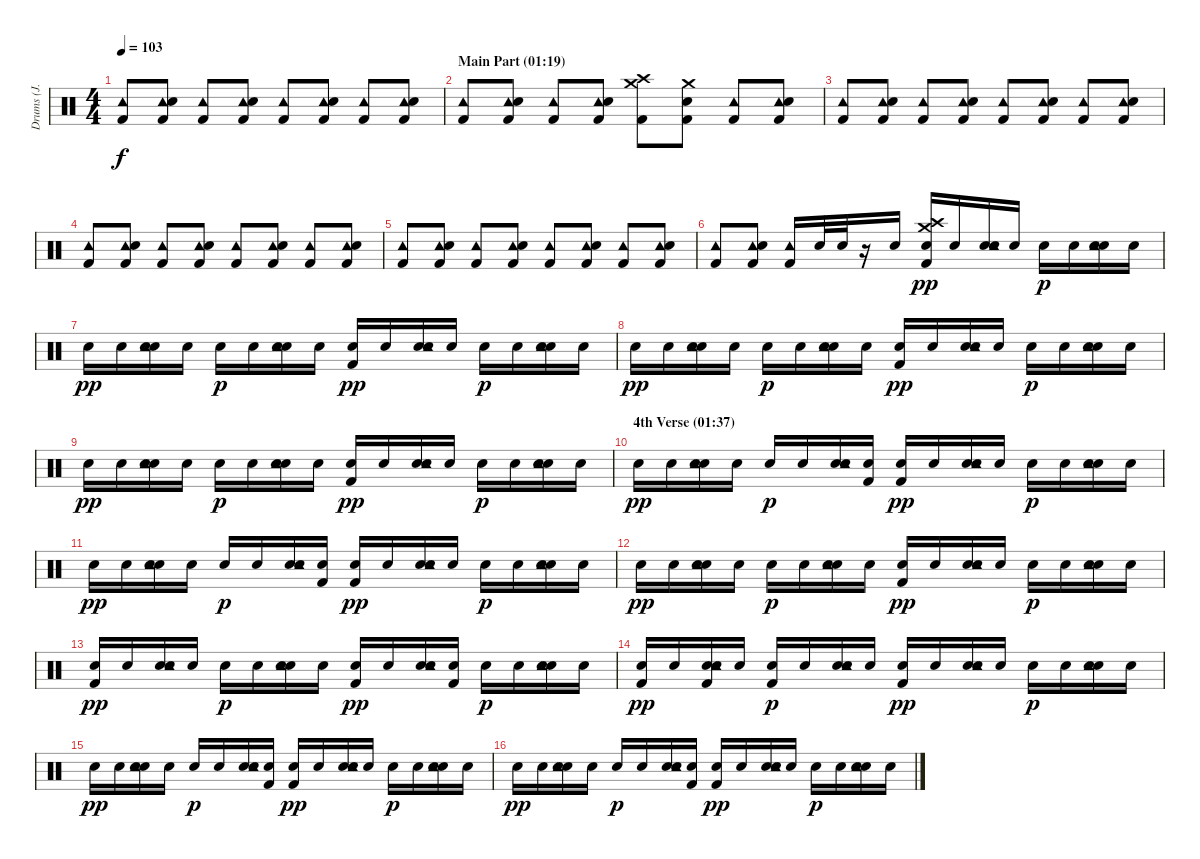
\track ("Drums (J. Cramer)" "Drums (J. ") {instrument percussion}
\staff {score}
\articulation defaults
\ts (4 4)
\tempo 103
\clef neutral
\ks c
("Tambourine (hit)" "Kick (hit) 2").8{dy f} ("Tambourine (hit)" "Electric Snare (hit)" "Kick (hit) 2").8 ("Tambourine (hit)" "Kick (hit) 2").8 ("Tambourine (hit)" "Electric Snare (hit)" "Kick (hit) 2").8 ("Tambourine (hit)" "Kick (hit) 2").8 ("Tambourine (hit)" "Electric Snare (hit)" "Kick (hit) 2").8 ("Tambourine (hit)" "Kick (hit) 2").8 ("Tambourine (hit)" "Electric Snare (hit)" "Kick (hit) 2").8 |
\section ("" "Main Part (01:19)")
("Tambourine (hit)" "Kick (hit) 2").8 ("Tambourine (hit)" "Electric Snare (hit)" "Kick (hit) 2").8 ("Tambourine (hit)" "Kick (hit) 2").8 ("Tambourine (hit)" "Electric Snare (hit)" "Kick (hit) 2").8 ("Kick (hit) 2" "Crash high (hit)" "Crash medium (hit)").8 ("Electric Snare (hit)" "Kick (hit) 2" "Crash medium (hit)").8 ("Tambourine (hit)" "Kick (hit) 2").8 ("Tambourine (hit)" "Electric Snare (hit)" "Kick (hit) 2").8 |
("Tambourine (hit)" "Kick (hit) 2").8 ("Tambourine (hit)" "Electric Snare (hit)" "Kick (hit) 2").8 ("Tambourine (hit)" "Kick (hit) 2").8 ("Tambourine (hit)" "Electric Snare (hit)" "Kick (hit) 2").8 ("Tambourine (hit)" "Kick (hit) 2").8 ("Tambourine (hit)" "Electric Snare (hit)" "Kick (hit) 2").8 ("Tambourine (hit)" "Kick (hit) 2").8 ("Tambourine (hit)" "Electric Snare (hit)" "Kick (hit) 2").8 |
("Tambourine (hit)" "Kick (hit) 2").8 ("Tambourine (hit)" "Electric Snare (hit)" "Kick (hit) 2").8 ("Tambourine (hit)" "Kick (hit) 2").8 ("Tambourine (hit)" "Electric Snare (hit)" "Kick (hit) 2").8 ("Tambourine (hit)" "Kick (hit) 2").8 ("Tambourine (hit)" "Electric Snare (hit)" "Kick (hit) 2").8 ("Tambourine (hit)" "Kick (hit) 2").8 ("Tambourine (hit)" "Electric Snare (hit)" "Kick (hit) 2").8 |
("Tambourine (hit)" "Kick (hit) 2").8 ("Tambourine (hit)" "Electric Snare (hit)" "Kick (hit) 2").8 ("Tambourine (hit)" "Kick (hit) 2").8 ("Tambourine (hit)" "Electric Snare (hit)" "Kick (hit) 2").8 ("Tambourine (hit)" "Kick (hit) 2").8 ("Tambourine (hit)" "Electric Snare (hit)" "Kick (hit) 2").8 ("Tambourine (hit)" "Kick (hit) 2").8 ("Tambourine (hit)" "Electric Snare (hit)" "Kick (hit) 2").8 |
("Tambourine (hit)" "Kick (hit) 2").8 ("Tambourine (hit)" "Electric Snare (hit)" "Kick (hit) 2").8 ("Tambourine (hit)" "Kick (hit) 2").16 "Electric Snare (hit)".32 "Electric Snare (hit)".32 r.16 "Electric Snare (hit)".16 ("Snare (hit) 2" "Crash medium (hit)" "Crash high (hit)" "Kick (hit) 2").16{dy pp} "Snare (hit) 2".16 ("Snare (hit) 2" "Tambourine (hit)" "Electric Snare (hit)").16 "Snare (hit) 2".16 "Snare (hit) 2".16{dy p} "Snare (hit) 2".16 ("Snare (hit) 2" "Tambourine (hit)" "Electric Snare (hit)").16 "Snare (hit) 2".16 |
"Snare (hit) 2".16{dy pp} "Snare (hit) 2".16 ("Snare (hit) 2" "Tambourine (hit)" "Electric Snare (hit)").16 "Snare (hit) 2".16 "Snare (hit) 2".16{dy p} "Snare (hit) 2".16 ("Snare (hit) 2" "Tambourine (hit)" "Electric Snare (hit)").16 "Snare (hit) 2".16 ("Snare (hit) 2" "Kick (hit) 2").16{dy pp} "Snare (hit) 2".16 ("Snare (hit) 2" "Tambourine (hit)" "Electric Snare (hit)").16 "Snare (hit) 2".16 "Snare (hit) 2".16{dy p} "Snare (hit) 2".16 ("Snare (hit) 2" "Tambourine (hit)" "Electric Snare (hit)").16 "Snare (hit) 2".16 |
"Snare (hit) 2".16{dy pp} "Snare (hit) 2".16 ("Snare (hit) 2" "Tambourine (hit)" "Electric Snare (hit)").16 "Snare (hit) 2".16 "Snare (hit) 2".16{dy p} "Snare (hit) 2".16 ("Snare (hit) 2" "Tambourine (hit)" "Electric Snare (hit)").16 "Snare (hit) 2".16 ("Snare (hit) 2" "Kick (hit) 2").16{dy pp} "Snare (hit) 2".16 ("Snare (hit) 2" "Tambourine (hit)" "Electric Snare (hit)").16 "Snare (hit) 2".16 "Snare (hit) 2".16{dy p} "Snare (hit) 2".16 ("Snare (hit) 2" "Tambourine (hit)" "Electric Snare (hit)").16 "Snare (hit) 2".16 |
"Snare (hit) 2".16{dy pp} "Snare (hit) 2".16 ("Snare (hit) 2" "Tambourine (hit)" "Electric Snare (hit)").16 "Snare (hit) 2".16 "Snare (hit) 2".16{dy p} "Snare (hit) 2".16 ("Snare (hit) 2" "Tambourine (hit)" "Electric Snare (hit)").16 "Snare (hit) 2".16 ("Snare (hit) 2" "Kick (hit) 2").16{dy pp} "Snare (hit) 2".16 ("Snare (hit) 2" "Tambourine (hit)" "Electric Snare (hit)").16 "Snare (hit) 2".16 "Snare (hit) 2".16{dy p} "Snare (hit) 2".16 ("Snare (hit) 2" "Tambourine (hit)" "Electric Snare (hit)").16 "Snare (hit) 2".16 |
\section ("" "4th Verse (01:37)")
"Snare (hit) 2".16{dy pp} "Snare (hit) 2".16 ("Snare (hit) 2" "Tambourine (hit)" "Electric Snare (hit)").16 "Snare (hit) 2".16 "Snare (hit) 2".16{dy p} "Snare (hit) 2".16 ("Snare (hit) 2" "Tambourine (hit)" "Electric Snare (hit)").16 ("Snare (hit) 2" "Kick (hit) 2").16 ("Snare (hit) 2" "Kick (hit) 2").16{dy pp} "Snare (hit) 2".16 ("Snare (hit) 2" "Tambourine (hit)" "Electric Snare (hit)").16 "Snare (hit) 2".16 "Snare (hit) 2".16{dy p} "Snare (hit) 2".16 ("Snare (hit) 2" "Tambourine (hit)" "Electric Snare (hit)").16 "Snare (hit) 2".16 |
"Snare (hit) 2".16{dy pp} "Snare (hit) 2".16 ("Snare (hit) 2" "Tambourine (hit)" "Electric Snare (hit)").16 "Snare (hit) 2".16 "Snare (hit) 2".16{dy p} "Snare (hit) 2".16 ("Snare (hit) 2" "Tambourine (hit)" "Electric Snare (hit)").16 ("Snare (hit) 2" "Kick (hit) 2").16 ("Snare (hit) 2" "Kick (hit) 2").16{dy pp} "Snare (hit) 2".16 ("Snare (hit) 2" "Tambourine (hit)" "Electric Snare (hit)").16 "Snare (hit) 2".16 "Snare (hit) 2".16{dy p} "Snare (hit) 2".16 ("Snare (hit) 2" "Tambourine (hit)" "Electric Snare (hit)").16 "Snare (hit) 2".16 |
"Snare (hit) 2".16{dy pp} "Snare (hit) 2".16 ("Snare (hit) 2" "Tambourine (hit)" "Electric Snare (hit)").16 "Snare (hit) 2".16 "Snare (hit) 2".16{dy p} "Snare (hit) 2".16 ("Snare (hit) 2" "Tambourine (hit)" "Electric Snare (hit)").16 "Snare (hit) 2".16 ("Snare (hit) 2" "Kick (hit) 2").16{dy pp} "Snare (hit) 2".16 ("Snare (hit) 2" "Tambourine (hit)" "Electric Snare (hit)").16 "Snare (hit) 2".16 "Snare (hit) 2".16{dy p} "Snare (hit) 2".16 ("Snare (hit) 2" "Tambourine (hit)" "Electric Snare (hit)").16 "Snare (hit) 2".16 |
("Snare (hit) 2" "Kick (hit) 2").16{dy pp} "Snare (hit) 2".16 ("Snare (hit) 2" "Tambourine (hit)" "Electric Snare (hit)").16 "Snare (hit) 2".16 "Snare (hit) 2".16{dy p} "Snare (hit) 2".16 ("Snare (hit) 2" "Tambourine (hit)" "Electric Snare (hit)").16 "Snare (hit) 2".16 ("Snare (hit) 2" "Kick (hit) 2").16{dy pp} "Snare (hit) 2".16 ("Snare (hit) 2" "Tambourine (hit)" "Electric Snare (hit)").16 ("Snare (hit) 2" "Kick (hit) 2").16 "Snare (hit) 2".16{dy p} "Snare (hit) 2".16 ("Snare (hit) 2" "Tambourine (hit)" "Electric Snare (hit)").16 "Snare (hit) 2".16 |
("Snare (hit) 2" "Kick (hit) 2").16{dy pp} "Snare (hit) 2".16 ("Snare (hit) 2" "Kick (hit) 2" "Tambourine (hit)" "Electric Snare (hit)").16 "Snare (hit) 2".16 ("Snare (hit) 2" "Kick (hit) 2").16{dy p} "Snare (hit) 2".16 ("Snare (hit) 2" "Tambourine (hit)" "Electric Snare (hit)").16 "Snare (hit) 2".16 ("Snare (hit) 2" "Kick (hit) 2").16{dy pp} "Snare (hit) 2".16 ("Snare (hit) 2" "Tambourine (hit)" "Electric Snare (hit)").16 "Snare (hit) 2".16 "Snare (hit) 2".16{dy p} "Snare (hit) 2".16 ("Snare (hit) 2" "Tambourine (hit)" "Electric Snare (hit)").16 "Snare (hit) 2".16 |
"Snare (hit) 2".16{dy pp} "Snare (hit) 2".16 ("Snare (hit) 2" "Tambourine (hit)" "Electric Snare (hit)").16 "Snare (hit) 2".16 "Snare (hit) 2".16{dy p} "Snare (hit) 2".16 ("Snare (hit) 2" "Tambourine (hit)" "Electric Snare (hit)").16 ("Snare (hit) 2" "Kick (hit) 2").16 ("Snare (hit) 2" "Kick (hit) 2").16{dy pp} "Snare (hit) 2".16 ("Snare (hit) 2" "Tambourine (hit)" "Electric Snare (hit)").16 "Snare (hit) 2".16 "Snare (hit) 2".16{dy p} "Snare (hit) 2".16 ("Snare (hit) 2" "Tambourine (hit)" "Electric Snare (hit)").16 "Snare (hit) 2".16 |
"Snare (hit) 2".16{dy pp} "Snare (hit) 2".16 ("Snare (hit) 2" "Tambourine (hit)" "Electric Snare (hit)").16 "Snare (hit) 2".16 "Snare (hit) 2".16{dy p} "Snare (hit) 2".16 ("Snare (hit) 2" "Tambourine (hit)" "Electric Snare (hit)").16 ("Snare (hit) 2" "Kick (hit) 2").16 ("Snare (hit) 2" "Kick (hit) 2").16{dy pp} "Snare (hit) 2".16 ("Snare (hit) 2" "Tambourine (hit)" "Electric Snare (hit)").16 "Snare (hit) 2".16 "Snare (hit) 2".16{dy p} "Snare (hit) 2".16 ("Snare (hit) 2" "Tambourine (hit)" "Electric Snare (hit)").16 "Snare (hit) 2".16
